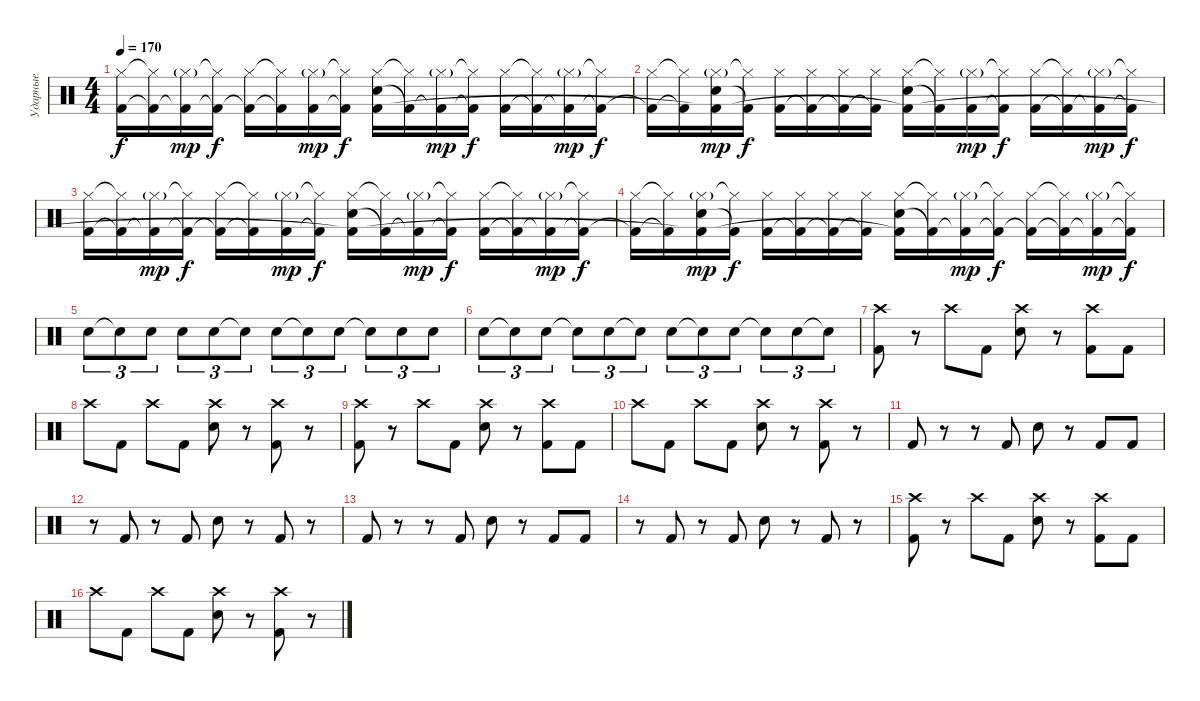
\track ("Ударные" "Ударные") {instrument percussion}
\staff
\articulation defaults
\ts (4 4)
\tempo 170
\clef neutral
\ks c
("Hi-Hat (closed)" "Kick (hit) 2").16{dy f} ("Hi-Hat (closed)"{t} "Kick (hit) 2"{t}).16 ("Hi-Hat (closed)"{g} "Kick (hit) 2"{t}).16{dy mp} ("Hi-Hat (closed)"{t} "Kick (hit) 2"{t}).16{dy f} ("Hi-Hat (closed)" "Kick (hit) 2"{t}).16 ("Hi-Hat (closed)"{t} "Kick (hit) 2"{t}).16 ("Hi-Hat (closed)"{g} "Kick (hit) 2").16{dy mp} ("Hi-Hat (closed)"{t} "Kick (hit) 2"{t}).16{dy f} ("Hi-Hat (closed)" "Electric Snare (hit)" "Kick (hit) 2"{t}).16 ("Hi-Hat (closed)"{t} "Kick (hit) 2"{t}).16 ("Hi-Hat (closed)"{g} "Kick (hit) 2"{t}).16{dy mp} ("Hi-Hat (closed)"{t} "Kick (hit) 2"{t}).16{dy f} ("Hi-Hat (closed)" "Kick (hit) 2").16 ("Hi-Hat (closed)"{t} "Kick (hit) 2"{t}).16 ("Hi-Hat (closed)"{g} "Kick (hit) 2"{t}).16{dy mp} ("Hi-Hat (closed)"{t} "Kick (hit) 2"{t}).16{dy f} |
("Hi-Hat (closed)" "Kick (hit) 2"{t}).16 ("Hi-Hat (closed)"{t} "Kick (hit) 2"{t}).16 ("Hi-Hat (closed)"{g} "Electric Snare (hit)" "Kick (hit) 2"{t}).16{dy mp} ("Hi-Hat (closed)"{t} "Kick (hit) 2"{t}).16{dy f} ("Hi-Hat (closed)" "Kick (hit) 2").16 ("Hi-Hat (closed)" "Kick (hit) 2"{t}).16 ("Hi-Hat (closed)" "Kick (hit) 2"{t}).16 ("Hi-Hat (closed)" "Kick (hit) 2"{t}).16 ("Hi-Hat (closed)" "Electric Snare (hit)" "Kick (hit) 2"{t}).16 ("Hi-Hat (closed)"{t} "Kick (hit) 2"{t}).16 ("Hi-Hat (closed)"{g} "Kick (hit) 2").16{dy mp} ("Hi-Hat (closed)"{t} "Kick (hit) 2"{t}).16{dy f} ("Hi-Hat (closed)" "Kick (hit) 2").16 ("Hi-Hat (closed)"{t} "Kick (hit) 2"{t}).16 ("Hi-Hat (closed)"{g} "Kick (hit) 2"{t}).16{dy mp} ("Hi-Hat (closed)"{t} "Kick (hit) 2"{t}).16{dy f} |
("Hi-Hat (closed)" "Kick (hit) 2").16 ("Hi-Hat (closed)"{t} "Kick (hit) 2"{t}).16 ("Hi-Hat (closed)"{g} "Kick (hit) 2"{t}).16{dy mp} ("Hi-Hat (closed)"{t} "Kick (hit) 2"{t}).16{dy f} ("Hi-Hat (closed)" "Kick (hit) 2"{t}).16 ("Hi-Hat (closed)"{t} "Kick (hit) 2"{t}).16 ("Hi-Hat (closed)"{g} "Kick (hit) 2").16{dy mp} ("Hi-Hat (closed)"{t} "Kick (hit) 2"{t}).16{dy f} ("Hi-Hat (closed)" "Electric Snare (hit)" "Kick (hit) 2"{t}).16 ("Hi-Hat (closed)"{t} "Kick (hit) 2"{t}).16 ("Hi-Hat (closed)"{g} "Kick (hit) 2"{t}).16{dy mp} ("Hi-Hat (closed)"{t} "Kick (hit) 2"{t}).16{dy f} ("Hi-Hat (closed)" "Kick (hit) 2").16 ("Hi-Hat (closed)"{t} "Kick (hit) 2"{t}).16 ("Hi-Hat (closed)"{g} "Kick (hit) 2"{t}).16{dy mp} ("Hi-Hat (closed)"{t} "Kick (hit) 2"{t}).16{dy f} |
("Hi-Hat (closed)" "Kick (hit) 2"{t}).16 ("Hi-Hat (closed)"{t} "Kick (hit) 2"{t}).16 ("Hi-Hat (closed)"{g} "Electric Snare (hit)" "Kick (hit) 2"{t}).16{dy mp} ("Hi-Hat (closed)"{t} "Kick (hit) 2"{t}).16{dy f} ("Hi-Hat (closed)" "Kick (hit) 2").16 ("Hi-Hat (closed)" "Kick (hit) 2"{t}).16 ("Hi-Hat (closed)" "Kick (hit) 2"{t}).16 ("Hi-Hat (closed)" "Kick (hit) 2"{t}).16 ("Hi-Hat (closed)" "Electric Snare (hit)" "Kick (hit) 2"{t}).16 ("Hi-Hat (closed)"{t} "Kick (hit) 2"{t}).16 ("Hi-Hat (closed)"{g} "Kick (hit) 2"{t}).16{dy mp} ("Hi-Hat (closed)"{t} "Kick (hit) 2"{t}).16{dy f} ("Hi-Hat (closed)" "Kick (hit) 2"{t}).16 ("Hi-Hat (closed)"{t} "Kick (hit) 2"{t}).16 ("Hi-Hat (closed)"{g} "Kick (hit) 2"{t}).16{dy mp} ("Hi-Hat (closed)"{t} "Kick (hit) 2"{t}).16{dy f} |
"Electric Snare (hit)".8{tu (3 2)} "Snare (hit)"{t}.8{tu (3 2)} "Electric Snare (hit)".8{tu (3 2)} "Electric Snare (hit)".8{tu (3 2)} "Electric Snare (hit)".8{tu (3 2)} "Snare (hit)"{t}.8{tu (3 2)} "Electric Snare (hit)".8{tu (3 2)} "Snare (hit)"{t}.8{tu (3 2)} "Electric Snare (hit)".8{tu (3 2)} "Snare (hit)"{t}.8{tu (3 2)} "Electric Snare (hit)".8{tu (3 2)} "Electric Snare (hit)".8{tu (3 2)} |
"Electric Snare (hit)".8{tu (3 2)} "Snare (hit)"{t}.8{tu (3 2)} "Electric Snare (hit)".8{tu (3 2)} "Snare (hit)"{t}.8{tu (3 2)} "Electric Snare (hit)".8{tu (3 2)} "Snare (hit)"{t}.8{tu (3 2)} "Electric Snare (hit)".8{tu (3 2)} "Electric Snare (hit)"{t}.8{tu (3 2)} "Electric Snare (hit)".8{tu (3 2)} "Electric Snare (hit)"{t}.8{tu (3 2)} "Electric Snare (hit)".8{tu (3 2)} "Snare (hit)"{t}.8{tu (3 2)} |
("Crash high (hit)" "Kick (hit) 2").8 r.8 "Crash high (hit)".8 "Kick (hit) 2".8 ("Crash high (hit)" "Electric Snare (hit)").8 r.8 ("Crash high (hit)" "Kick (hit) 2").8 "Kick (hit) 2".8 |
"Crash high (hit)".8 "Kick (hit) 2".8 "Crash high (hit)".8 "Kick (hit) 2".8 ("Crash high (hit)" "Electric Snare (hit)").8 r.8 ("Crash high (hit)" "Kick (hit) 2").8 r.8 |
("Crash high (hit)" "Kick (hit) 2").8 r.8 "Crash high (hit)".8 "Kick (hit) 2".8 ("Crash high (hit)" "Electric Snare (hit)").8 r.8 ("Crash high (hit)" "Kick (hit) 2").8 "Kick (hit) 2".8 |
"Crash high (hit)".8 "Kick (hit) 2".8 "Crash high (hit)".8 "Kick (hit) 2".8 ("Crash high (hit)" "Electric Snare (hit)").8 r.8 ("Crash high (hit)" "Kick (hit) 2").8 r.8 |
"Kick (hit) 2".8 r.8 r.8 "Kick (hit) 2".8 "Electric Snare (hit)".8 r.8 "Kick (hit) 2".8 "Kick (hit) 2".8 |
r.8 "Kick (hit) 2".8 r.8 "Kick (hit) 2".8 "Electric Snare (hit)".8 r.8 "Kick (hit) 2".8 r.8 |
"Kick (hit) 2".8 r.8 r.8 "Kick (hit) 2".8 "Electric Snare (hit)".8 r.8 "Kick (hit) 2".8 "Kick (hit) 2".8 |
r.8 "Kick (hit) 2".8 r.8 "Kick (hit) 2".8 "Electric Snare (hit)".8 r.8 "Kick (hit) 2".8 r.8 |
("Crash high (hit)" "Kick (hit) 2").8 r.8 "Crash high (hit)".8 "Kick (hit) 2".8 ("Crash high (hit)" "Electric Snare (hit)").8 r.8 ("Crash high (hit)" "Kick (hit) 2").8 "Kick (hit) 2".8 |
"Crash high (hit)".8 "Kick (hit) 2".8 "Crash high (hit)".8 "Kick (hit) 2".8 ("Crash high (hit)" "Electric Snare (hit)").8 r.8 ("Crash high (hit)" "Kick (hit) 2").8 r.8
